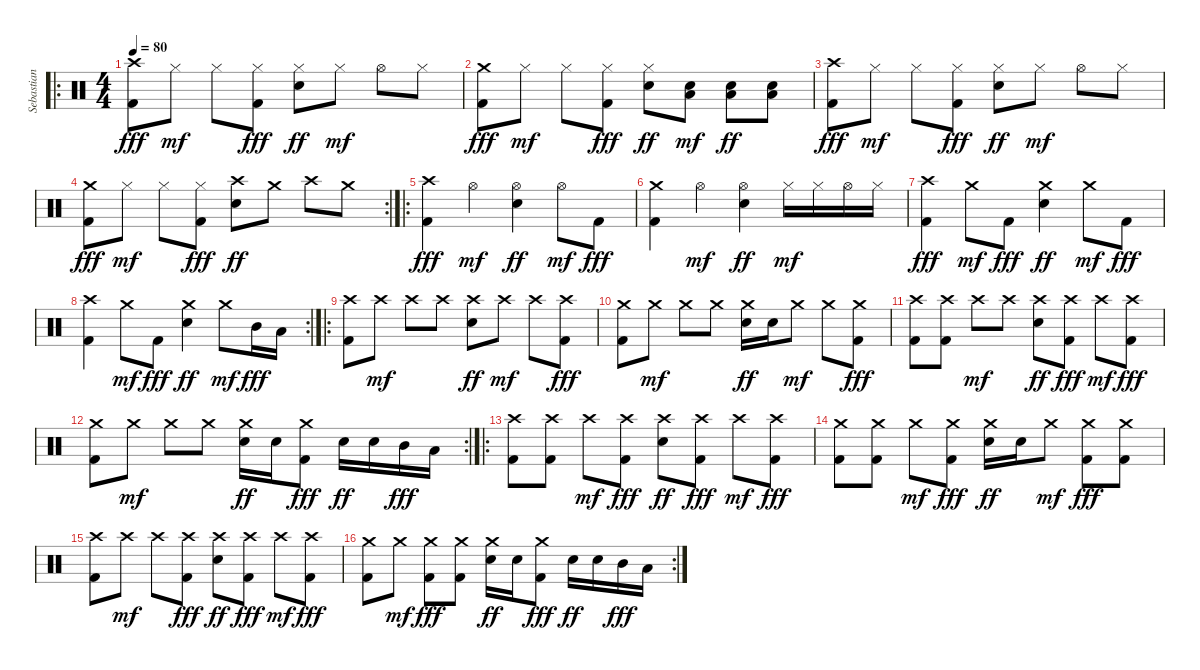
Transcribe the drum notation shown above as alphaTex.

\track ("Sebastian" "Sebastian") {instrument percussion}
\staff {score}
\articulation defaults
\ro
\ts (4 4)
\tempo 80
\clef neutral
\ks c
("Crash high (hit)" "Kick (hit) 2").8{dy fff} "Hi-Hat (closed)".8{dy mf} "Hi-Hat (closed)".8 ("Hi-Hat (closed)" "Kick (hit) 2").8{dy fff} ("Hi-Hat (closed)" "Electric Snare (hit)").8{dy ff} "Hi-Hat (closed)".8{dy mf} "Hi-Hat (open)".8 "Hi-Hat (closed)".8 |
("Crash medium (hit)" "Kick (hit) 2").8{dy fff} "Hi-Hat (closed)".8{dy mf} "Hi-Hat (closed)".8 ("Hi-Hat (closed)" "Kick (hit) 2").8{dy fff} ("Hi-Hat (closed)" "Electric Snare (hit)").8{dy ff} ("Low Floor Tom (hit)" "Electric Snare (hit)").8{dy mf} ("Low Floor Tom (hit)" "Electric Snare (hit)").8{dy ff} ("Low Floor Tom (hit)" "Electric Snare (hit)").8 |
("Crash high (hit)" "Kick (hit) 2").8{dy fff} "Hi-Hat (closed)".8{dy mf} "Hi-Hat (closed)".8 ("Hi-Hat (closed)" "Kick (hit) 2").8{dy fff} ("Hi-Hat (closed)" "Electric Snare (hit)").8{dy ff} "Hi-Hat (closed)".8{dy mf} "Hi-Hat (open)".8 "Hi-Hat (closed)".8 |
\rc 2
("Crash medium (hit)" "Kick (hit) 2").8{dy fff} "Hi-Hat (closed)".8{dy mf} "Hi-Hat (closed)".8 ("Hi-Hat (closed)" "Kick (hit) 2").8{dy fff} ("Crash high (hit)" "Electric Snare (hit)").8{dy ff} "Crash medium (hit)".8 "Crash high (hit)".8 "Crash medium (hit)".8 |
\ro
("Crash high (hit)" "Kick (hit) 2").4{dy fff} "Hi-Hat (open)".4{dy mf} ("Hi-Hat (open)" "Electric Snare (hit)").4{dy ff} "Hi-Hat (open)".8{dy mf} "Kick (hit) 2".8{dy fff} |
("Crash medium (hit)" "Kick (hit) 2").4 "Hi-Hat (open)".4{dy mf} ("Hi-Hat (open)" "Electric Snare (hit)").4{dy ff} "Hi-Hat (closed)".16{dy mf} "Hi-Hat (closed)".16 "Hi-Hat (open)".16 "Hi-Hat (closed)".16 |
("Crash high (hit)" "Kick (hit) 2").4{dy fff} "Crash medium (hit)".8{dy mf} "Kick (hit) 2".8{dy fff} ("Crash medium (hit)" "Electric Snare (hit)").4{dy ff} "Crash medium (hit)".8{dy mf} "Kick (hit) 2".8{dy fff} |
\rc 2
("Crash high (hit)" "Kick (hit) 2").4 "Crash medium (hit)".8{dy mf} "Kick (hit) 2".8{dy fff} ("Crash medium (hit)" "Electric Snare (hit)").4{dy ff} "Crash medium (hit)".8{dy mf} "Mid Tom (hit)".16{dy fff} "Low Tom (hit)".16 |
\ro
("Crash high (hit)" "Kick (hit) 2").8 "Crash high (hit)".8{dy mf} "Crash high (hit)".8 "Crash high (hit)".8 ("Crash high (hit)" "Electric Snare (hit)").8{dy ff} "Crash high (hit)".8{dy mf} "Crash high (hit)".8 ("Crash high (hit)" "Kick (hit) 2").8{dy fff} |
("Crash medium (hit)" "Kick (hit) 2").8 "Crash medium (hit)".8{dy mf} "Crash medium (hit)".8 "Crash medium (hit)".8 ("Crash medium (hit)" "Electric Snare (hit)").16{dy ff} "Electric Snare (hit)".16 "Crash medium (hit)".8{dy mf} "Crash medium (hit)".8 ("Crash medium (hit)" "Kick (hit) 2").8{dy fff} |
("Crash high (hit)" "Kick (hit) 2").8 ("Crash high (hit)" "Kick (hit) 2").8 "Crash high (hit)".8{dy mf} "Crash high (hit)".8 ("Crash high (hit)" "Electric Snare (hit)").8{dy ff} ("Crash high (hit)" "Kick (hit) 2").8{dy fff} "Crash high (hit)".8{dy mf} ("Crash high (hit)" "Kick (hit) 2").8{dy fff} |
\rc 2
("Crash medium (hit)" "Kick (hit) 2").8 "Crash medium (hit)".8{dy mf} "Crash medium (hit)".8 "Crash medium (hit)".8 ("Crash medium (hit)" "Electric Snare (hit)").16{dy ff} "Electric Snare (hit)".16 ("Crash medium (hit)" "Kick (hit) 2").8{dy fff} "Electric Snare (hit)".16{dy ff} "Electric Snare (hit)".16 "Mid Tom (hit)".16{dy fff} "Low Tom (hit)".16 |
\ro
("Crash high (hit)" "Kick (hit) 2").8 ("Crash high (hit)" "Kick (hit) 2").8 "Crash high (hit)".8{dy mf} ("Crash high (hit)" "Kick (hit) 2").8{dy fff} ("Crash high (hit)" "Electric Snare (hit)").8{dy ff} ("Crash high (hit)" "Kick (hit) 2").8{dy fff} "Crash high (hit)".8{dy mf} ("Crash high (hit)" "Kick (hit) 2").8{dy fff} |
("Crash medium (hit)" "Kick (hit) 2").8 ("Crash medium (hit)" "Kick (hit) 2").8 "Crash medium (hit)".8{dy mf} ("Crash medium (hit)" "Kick (hit) 2").8{dy fff} ("Crash medium (hit)" "Electric Snare (hit)").16{dy ff} "Electric Snare (hit)".16 "Crash medium (hit)".8{dy mf} ("Crash medium (hit)" "Kick (hit) 2").8{dy fff} ("Crash medium (hit)" "Kick (hit) 2").8 |
("Crash high (hit)" "Kick (hit) 2").8 "Crash high (hit)".8{dy mf} "Crash high (hit)".8 ("Crash high (hit)" "Kick (hit) 2").8{dy fff} ("Crash high (hit)" "Electric Snare (hit)").8{dy ff} ("Crash high (hit)" "Kick (hit) 2").8{dy fff} "Crash high (hit)".8{dy mf} ("Crash high (hit)" "Kick (hit) 2").8{dy fff} |
\rc 2
("Crash medium (hit)" "Kick (hit) 2").8 "Crash medium (hit)".8{dy mf} ("Crash medium (hit)" "Kick (hit) 2").8{dy fff} ("Crash medium (hit)" "Kick (hit) 2").8 ("Crash medium (hit)" "Electric Snare (hit)").16{dy ff} "Electric Snare (hit)".16 ("Crash medium (hit)" "Kick (hit) 2").8{dy fff} "Electric Snare (hit)".16{dy ff} "Electric Snare (hit)".16 "Mid Tom (hit)".16{dy fff} "Low Tom (hit)".16
